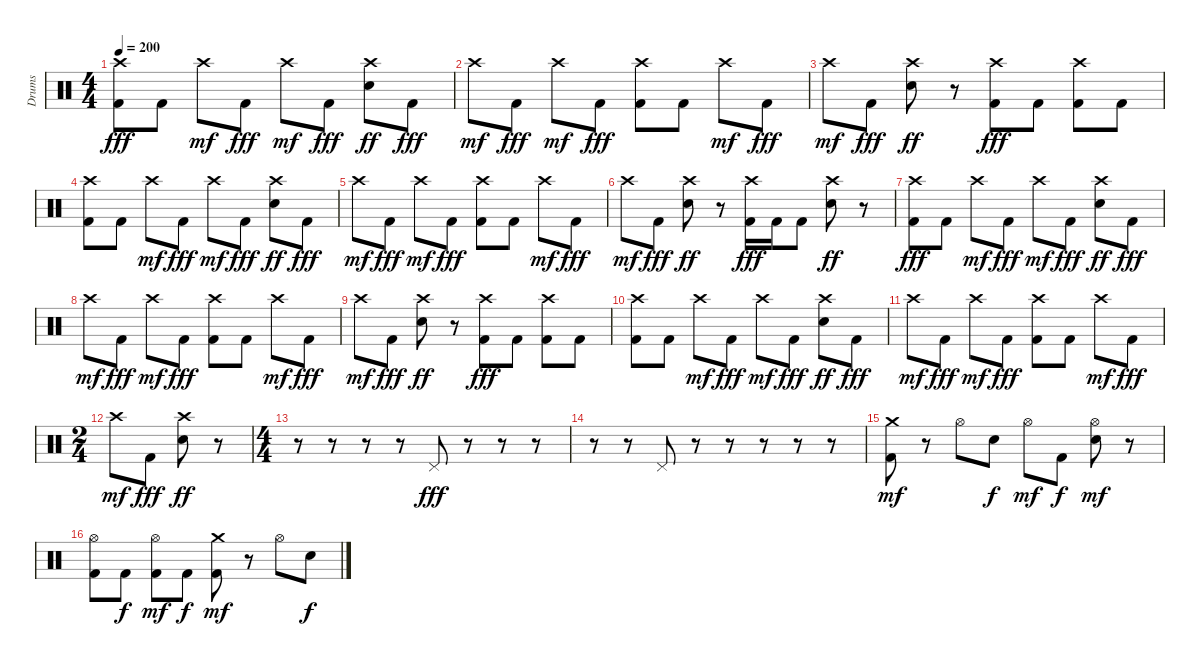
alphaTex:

\track ("Drums" "Drums") {instrument percussion}
\staff {score}
\articulation defaults
\ts (4 4)
\tempo 200
\clef neutral
\ks c
("Crash high (hit)" "Kick (hit) 2").8{dy fff} "Kick (hit) 2".8 "Crash high (hit)".8{dy mf} "Kick (hit) 2".8{dy fff} "Crash high (hit)".8{dy mf} "Kick (hit) 2".8{dy fff} ("Crash high (hit)" "Electric Snare (hit)").8{dy ff} "Kick (hit) 2".8{dy fff} |
"Crash high (hit)".8{dy mf} "Kick (hit) 2".8{dy fff} "Crash high (hit)".8{dy mf} "Kick (hit) 2".8{dy fff} ("Crash high (hit)" "Kick (hit) 2").8 "Kick (hit) 2".8 "Crash high (hit)".8{dy mf} "Kick (hit) 2".8{dy fff} |
"Crash high (hit)".8{dy mf} "Kick (hit) 2".8{dy fff} ("Crash high (hit)" "Electric Snare (hit)").8{dy ff} r.8 ("Crash high (hit)" "Kick (hit) 2").8{dy fff} "Kick (hit) 2".8 ("Crash high (hit)" "Kick (hit) 2").8 "Kick (hit) 2".8 |
("Crash high (hit)" "Kick (hit) 2").8 "Kick (hit) 2".8 "Crash high (hit)".8{dy mf} "Kick (hit) 2".8{dy fff} "Crash high (hit)".8{dy mf} "Kick (hit) 2".8{dy fff} ("Crash high (hit)" "Electric Snare (hit)").8{dy ff} "Kick (hit) 2".8{dy fff} |
"Crash high (hit)".8{dy mf} "Kick (hit) 2".8{dy fff} "Crash high (hit)".8{dy mf} "Kick (hit) 2".8{dy fff} ("Crash high (hit)" "Kick (hit) 2").8 "Kick (hit) 2".8 "Crash high (hit)".8{dy mf} "Kick (hit) 2".8{dy fff} |
"Crash high (hit)".8{dy mf} "Kick (hit) 2".8{dy fff} ("Crash high (hit)" "Electric Snare (hit)").8{dy ff} r.8 ("Crash high (hit)" "Kick (hit) 2").16{dy fff} "Kick (hit) 2".16 "Kick (hit) 2".8 ("Crash high (hit)" "Electric Snare (hit)").8{dy ff} r.8 |
("Crash high (hit)" "Kick (hit) 2").8{dy fff} "Kick (hit) 2".8 "Crash high (hit)".8{dy mf} "Kick (hit) 2".8{dy fff} "Crash high (hit)".8{dy mf} "Kick (hit) 2".8{dy fff} ("Crash high (hit)" "Electric Snare (hit)").8{dy ff} "Kick (hit) 2".8{dy fff} |
"Crash high (hit)".8{dy mf} "Kick (hit) 2".8{dy fff} "Crash high (hit)".8{dy mf} "Kick (hit) 2".8{dy fff} ("Crash high (hit)" "Kick (hit) 2").8 "Kick (hit) 2".8 "Crash high (hit)".8{dy mf} "Kick (hit) 2".8{dy fff} |
"Crash high (hit)".8{dy mf} "Kick (hit) 2".8{dy fff} ("Crash high (hit)" "Electric Snare (hit)").8{dy ff} r.8 ("Crash high (hit)" "Kick (hit) 2").8{dy fff} "Kick (hit) 2".8 ("Crash high (hit)" "Kick (hit) 2").8 "Kick (hit) 2".8 |
("Crash high (hit)" "Kick (hit) 2").8 "Kick (hit) 2".8 "Crash high (hit)".8{dy mf} "Kick (hit) 2".8{dy fff} "Crash high (hit)".8{dy mf} "Kick (hit) 2".8{dy fff} ("Crash high (hit)" "Electric Snare (hit)").8{dy ff} "Kick (hit) 2".8{dy fff} |
"Crash high (hit)".8{dy mf} "Kick (hit) 2".8{dy fff} "Crash high (hit)".8{dy mf} "Kick (hit) 2".8{dy fff} ("Crash high (hit)" "Kick (hit) 2").8 "Kick (hit) 2".8 "Crash high (hit)".8{dy mf} "Kick (hit) 2".8{dy fff} |
\ts (2 4)
"Crash high (hit)".8{dy mf} "Kick (hit) 2".8{dy fff} ("Crash high (hit)" "Electric Snare (hit)").8{dy ff} r.8 |
\ts (4 4)
r.8 r.8 r.8 r.8 "Pedal Hi-Hat (hit)".8{dy fff} r.8 r.8 r.8 |
r.8 r.8 "Pedal Hi-Hat (hit)".8 r.8 r.8 r.8 r.8 r.8 |
("Crash medium (hit)" "Kick (hit) 2").8{dy mf} r.8 "Hi-Hat (open)".8 "Electric Snare (hit)".8{dy f} "Hi-Hat (open)".8{dy mf} "Kick (hit) 2".8{dy f} ("Hi-Hat (open)" "Electric Snare (hit)").8{dy mf} r.8 |
("Hi-Hat (open)" "Kick (hit) 2").8 "Kick (hit) 2".8{dy f} ("Hi-Hat (open)" "Kick (hit) 2").8{dy mf} "Kick (hit) 2".8{dy f} ("Crash medium (hit)" "Kick (hit) 2").8{dy mf} r.8 "Hi-Hat (open)".8 "Electric Snare (hit)".8{dy f}
